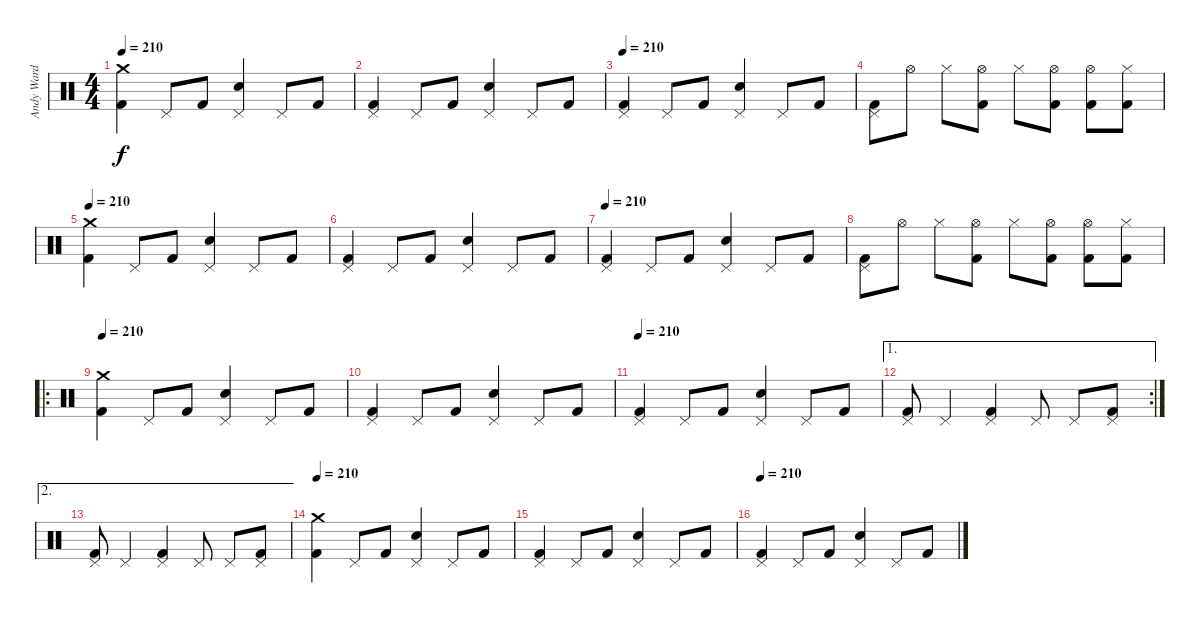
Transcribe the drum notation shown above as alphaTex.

\track ("Andy Ward" "Andy Ward") {instrument percussion}
\staff {score}
\articulation defaults
\ts (4 4)
\tempo 210
\clef neutral
\ks c
("Crash medium (hit)" "Kick (hit) 2").4{dy f} "Pedal Hi-Hat (hit)".8 "Kick (hit) 2".8 ("Pedal Hi-Hat (hit)" "Electric Snare (hit)").4 "Pedal Hi-Hat (hit)".8 "Kick (hit) 2".8 |
("Pedal Hi-Hat (hit)" "Kick (hit) 2").4 "Pedal Hi-Hat (hit)".8 "Kick (hit) 2".8 ("Pedal Hi-Hat (hit)" "Electric Snare (hit)").4 "Pedal Hi-Hat (hit)".8 "Kick (hit) 2".8 |
\tempo 210
("Pedal Hi-Hat (hit)" "Kick (hit) 2").4 "Pedal Hi-Hat (hit)".8 "Kick (hit) 2".8 ("Pedal Hi-Hat (hit)" "Electric Snare (hit)").4 "Pedal Hi-Hat (hit)".8 "Kick (hit) 2".8 |
("Pedal Hi-Hat (hit)" "Kick (hit) 2").8 "Hi-Hat (open)".8 "Hi-Hat (closed)".8 ("Hi-Hat (open)" "Kick (hit) 2").8 "Hi-Hat (closed)".8 ("Hi-Hat (open)" "Kick (hit) 2").8 ("Hi-Hat (open)" "Kick (hit) 2").8 ("Hi-Hat (closed)" "Kick (hit) 2").8 |
\tempo 210
("Crash medium (hit)" "Kick (hit) 2").4 "Pedal Hi-Hat (hit)".8 "Kick (hit) 2".8 ("Pedal Hi-Hat (hit)" "Electric Snare (hit)").4 "Pedal Hi-Hat (hit)".8 "Kick (hit) 2".8 |
("Pedal Hi-Hat (hit)" "Kick (hit) 2").4 "Pedal Hi-Hat (hit)".8 "Kick (hit) 2".8 ("Pedal Hi-Hat (hit)" "Electric Snare (hit)").4 "Pedal Hi-Hat (hit)".8 "Kick (hit) 2".8 |
\tempo 210
("Pedal Hi-Hat (hit)" "Kick (hit) 2").4 "Pedal Hi-Hat (hit)".8 "Kick (hit) 2".8 ("Pedal Hi-Hat (hit)" "Electric Snare (hit)").4 "Pedal Hi-Hat (hit)".8 "Kick (hit) 2".8 |
("Pedal Hi-Hat (hit)" "Kick (hit) 2").8 "Hi-Hat (open)".8 "Hi-Hat (closed)".8 ("Hi-Hat (open)" "Kick (hit) 2").8 "Hi-Hat (closed)".8 ("Hi-Hat (open)" "Kick (hit) 2").8 ("Hi-Hat (open)" "Kick (hit) 2").8 ("Hi-Hat (closed)" "Kick (hit) 2").8 |
\ro
\tempo 210
("Crash medium (hit)" "Kick (hit) 2").4 "Pedal Hi-Hat (hit)".8 "Kick (hit) 2".8 ("Pedal Hi-Hat (hit)" "Electric Snare (hit)").4 "Pedal Hi-Hat (hit)".8 "Kick (hit) 2".8 |
("Pedal Hi-Hat (hit)" "Kick (hit) 2").4 "Pedal Hi-Hat (hit)".8 "Kick (hit) 2".8 ("Pedal Hi-Hat (hit)" "Electric Snare (hit)").4 "Pedal Hi-Hat (hit)".8 "Kick (hit) 2".8 |
\tempo 210
("Pedal Hi-Hat (hit)" "Kick (hit) 2").4 "Pedal Hi-Hat (hit)".8 "Kick (hit) 2".8 ("Pedal Hi-Hat (hit)" "Electric Snare (hit)").4 "Pedal Hi-Hat (hit)".8 "Kick (hit) 2".8 |
\ae 1
\rc 2
("Pedal Hi-Hat (hit)" "Kick (hit) 2").8 "Pedal Hi-Hat (hit)".4 ("Pedal Hi-Hat (hit)" "Kick (hit) 2").4 "Pedal Hi-Hat (hit)".8 "Pedal Hi-Hat (hit)".8 ("Pedal Hi-Hat (hit)" "Kick (hit) 2").8 |
\ae 2
("Pedal Hi-Hat (hit)" "Kick (hit) 2").8 "Pedal Hi-Hat (hit)".4 ("Pedal Hi-Hat (hit)" "Kick (hit) 2").4 "Pedal Hi-Hat (hit)".8 "Pedal Hi-Hat (hit)".8 ("Pedal Hi-Hat (hit)" "Kick (hit) 2").8 |
\tempo 210
("Crash medium (hit)" "Kick (hit) 2").4 "Pedal Hi-Hat (hit)".8 "Kick (hit) 2".8 ("Pedal Hi-Hat (hit)" "Electric Snare (hit)").4 "Pedal Hi-Hat (hit)".8 "Kick (hit) 2".8 |
("Pedal Hi-Hat (hit)" "Kick (hit) 2").4 "Pedal Hi-Hat (hit)".8 "Kick (hit) 2".8 ("Pedal Hi-Hat (hit)" "Electric Snare (hit)").4 "Pedal Hi-Hat (hit)".8 "Kick (hit) 2".8 |
\tempo 210
("Pedal Hi-Hat (hit)" "Kick (hit) 2").4 "Pedal Hi-Hat (hit)".8 "Kick (hit) 2".8 ("Pedal Hi-Hat (hit)" "Electric Snare (hit)").4 "Pedal Hi-Hat (hit)".8 "Kick (hit) 2".8
